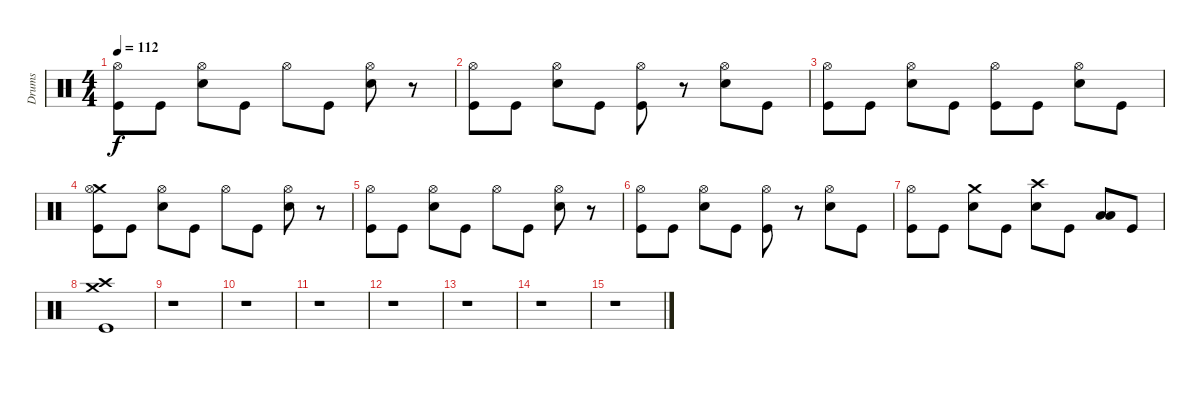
\track ("Drums" "Drums") {instrument percussion}
\staff {score}
\articulation defaults
\ts (4 4)
\tempo 112
\clef neutral
\ks c
("Hi-Hat (open)" "Kick (hit)").8{dy f} "Kick (hit)".8 ("Hi-Hat (open)" "Snare (hit) 2").8 "Kick (hit)".8 "Hi-Hat (open)".8 "Kick (hit)".8 ("Hi-Hat (open)" "Snare (hit) 2").8 r.8 |
("Hi-Hat (open)" "Kick (hit)").8 "Kick (hit)".8 ("Hi-Hat (open)" "Snare (hit) 2").8 "Kick (hit)".8 ("Hi-Hat (open)" "Kick (hit)").8 r.8 ("Hi-Hat (open)" "Snare (hit) 2").8 "Kick (hit)".8 |
("Hi-Hat (open)" "Kick (hit)").8 "Kick (hit)".8 ("Hi-Hat (open)" "Snare (hit) 2").8 "Kick (hit)".8 ("Hi-Hat (open)" "Kick (hit)").8 "Kick (hit)".8 ("Hi-Hat (open)" "Snare (hit) 2").8 "Kick (hit)".8 |
("Crash medium (hit)" "Hi-Hat (open)" "Kick (hit)").8 "Kick (hit)".8 ("Hi-Hat (open)" "Snare (hit) 2").8 "Kick (hit)".8 "Hi-Hat (open)".8 "Kick (hit)".8 ("Hi-Hat (open)" "Snare (hit) 2").8 r.8 |
("Hi-Hat (open)" "Kick (hit)").8 "Kick (hit)".8 ("Hi-Hat (open)" "Snare (hit) 2").8 "Kick (hit)".8 "Hi-Hat (open)".8 "Kick (hit)".8 ("Hi-Hat (open)" "Snare (hit) 2").8 r.8 |
("Hi-Hat (open)" "Kick (hit)").8 "Kick (hit)".8 ("Hi-Hat (open)" "Snare (hit) 2").8 "Kick (hit)".8 ("Hi-Hat (open)" "Kick (hit)").8 r.8 ("Hi-Hat (open)" "Snare (hit) 2").8 "Kick (hit)".8 |
("Hi-Hat (open)" "Kick (hit)").8 "Kick (hit)".8 ("Crash medium (hit)" "Snare (hit) 2").8 "Kick (hit)".8 ("Crash high (hit)" "Snare (hit) 2").8 "Kick (hit)".8 ("Low Floor Tom (hit)" "Low Floor Tom (hit)").8 "Kick (hit)".8 |
("Crash medium (hit)" "Crash high (hit)" "Kick (hit)").1 |
r.1 |
r.1 |
r.1 |
r.1 |
r.1 |
r.1 |
r.1
